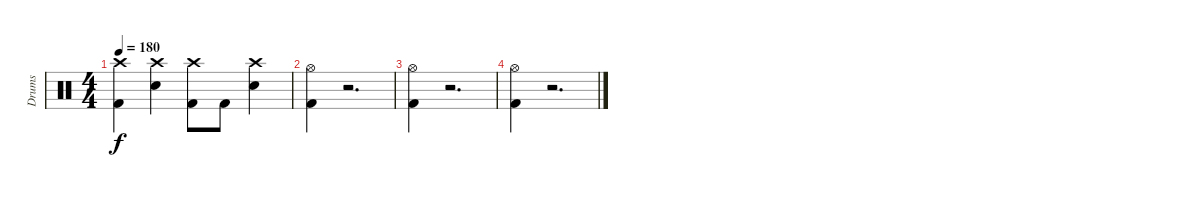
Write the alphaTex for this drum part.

\track ("Drums" "Drums") {instrument percussion}
\staff {score}
\articulation defaults
\ts (4 4)
\tempo 180
\clef neutral
\ks c
("Crash high (hit)" "Kick (hit) 2").4{dy f} ("Crash high (hit)" "Snare (hit) 2").4 ("Crash high (hit)" "Kick (hit) 2").8 "Kick (hit) 2".8 ("Crash high (hit)" "Snare (hit) 2").4 |
("Hi-Hat (open)" "Kick (hit) 2").4 r.2{d} |
("Hi-Hat (open)" "Kick (hit) 2").4 r.2{d} |
("Hi-Hat (open)" "Kick (hit) 2").4 r.2{d}
